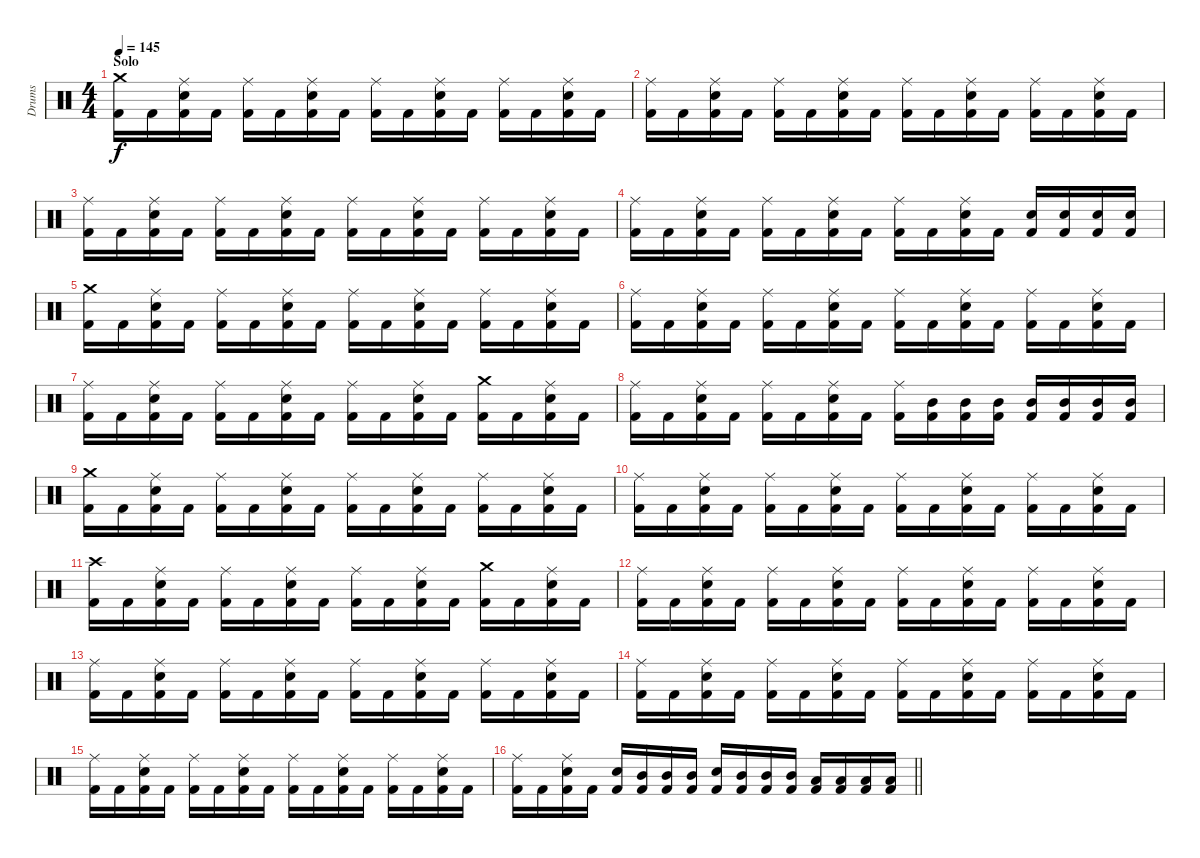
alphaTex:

\track ("Drums" "Drums") {instrument percussion}
\staff {score}
\articulation defaults
\ts (4 4)
\section ("" "Solo")
\tempo 145
\clef neutral
\ks c
("Crash medium (hit)" "Kick (hit) 2").16{dy f} "Kick (hit) 2".16 ("Ride (middle)" "Electric Snare (hit)" "Kick (hit) 2").16 "Kick (hit) 2".16 ("Ride (middle)" "Kick (hit) 2").16 "Kick (hit) 2".16 ("Ride (middle)" "Electric Snare (hit)" "Kick (hit) 2").16 "Kick (hit) 2".16 ("Ride (middle)" "Kick (hit) 2").16 "Kick (hit) 2".16 ("Ride (middle)" "Electric Snare (hit)" "Kick (hit) 2").16 "Kick (hit) 2".16 ("Ride (middle)" "Kick (hit) 2").16 "Kick (hit) 2".16 ("Ride (middle)" "Electric Snare (hit)" "Kick (hit) 2").16 "Kick (hit) 2".16 |
("Ride (middle)" "Kick (hit) 2").16 "Kick (hit) 2".16 ("Ride (middle)" "Electric Snare (hit)" "Kick (hit) 2").16 "Kick (hit) 2".16 ("Ride (middle)" "Kick (hit) 2").16 "Kick (hit) 2".16 ("Ride (middle)" "Electric Snare (hit)" "Kick (hit) 2").16 "Kick (hit) 2".16 ("Ride (middle)" "Kick (hit) 2").16 "Kick (hit) 2".16 ("Ride (middle)" "Electric Snare (hit)" "Kick (hit) 2").16 "Kick (hit) 2".16 ("Ride (middle)" "Kick (hit) 2").16 "Kick (hit) 2".16 ("Ride (middle)" "Electric Snare (hit)" "Kick (hit) 2").16 "Kick (hit) 2".16 |
("Ride (middle)" "Kick (hit) 2").16 "Kick (hit) 2".16 ("Ride (middle)" "Electric Snare (hit)" "Kick (hit) 2").16 "Kick (hit) 2".16 ("Ride (middle)" "Kick (hit) 2").16 "Kick (hit) 2".16 ("Ride (middle)" "Electric Snare (hit)" "Kick (hit) 2").16 "Kick (hit) 2".16 ("Ride (middle)" "Kick (hit) 2").16 "Kick (hit) 2".16 ("Ride (middle)" "Electric Snare (hit)" "Kick (hit) 2").16 "Kick (hit) 2".16 ("Ride (middle)" "Kick (hit) 2").16 "Kick (hit) 2".16 ("Ride (middle)" "Electric Snare (hit)" "Kick (hit) 2").16 "Kick (hit) 2".16 |
("Ride (middle)" "Kick (hit) 2").16 "Kick (hit) 2".16 ("Ride (middle)" "Electric Snare (hit)" "Kick (hit) 2").16 "Kick (hit) 2".16 ("Ride (middle)" "Kick (hit) 2").16 "Kick (hit) 2".16 ("Ride (middle)" "Electric Snare (hit)" "Kick (hit) 2").16 "Kick (hit) 2".16 ("Ride (middle)" "Kick (hit) 2").16 "Kick (hit) 2".16 ("Ride (middle)" "Electric Snare (hit)" "Kick (hit) 2").16 "Kick (hit) 2".16 ("Electric Snare (hit)" "Kick (hit) 2").16 ("Electric Snare (hit)" "Kick (hit) 2").16 ("Electric Snare (hit)" "Kick (hit) 2").16 ("Electric Snare (hit)" "Kick (hit) 2").16 |
("Crash medium (hit)" "Kick (hit) 2").16 "Kick (hit) 2".16 ("Ride (middle)" "Electric Snare (hit)" "Kick (hit) 2").16 "Kick (hit) 2".16 ("Ride (middle)" "Kick (hit) 2").16 "Kick (hit) 2".16 ("Ride (middle)" "Electric Snare (hit)" "Kick (hit) 2").16 "Kick (hit) 2".16 ("Ride (middle)" "Kick (hit) 2").16 "Kick (hit) 2".16 ("Ride (middle)" "Electric Snare (hit)" "Kick (hit) 2").16 "Kick (hit) 2".16 ("Ride (middle)" "Kick (hit) 2").16 "Kick (hit) 2".16 ("Ride (middle)" "Electric Snare (hit)" "Kick (hit) 2").16 "Kick (hit) 2".16 |
("Ride (middle)" "Kick (hit) 2").16 "Kick (hit) 2".16 ("Ride (middle)" "Electric Snare (hit)" "Kick (hit) 2").16 "Kick (hit) 2".16 ("Ride (middle)" "Kick (hit) 2").16 "Kick (hit) 2".16 ("Ride (middle)" "Electric Snare (hit)" "Kick (hit) 2").16 "Kick (hit) 2".16 ("Ride (middle)" "Kick (hit) 2").16 "Kick (hit) 2".16 ("Ride (middle)" "Electric Snare (hit)" "Kick (hit) 2").16 "Kick (hit) 2".16 ("Ride (middle)" "Kick (hit) 2").16 "Kick (hit) 2".16 ("Ride (middle)" "Electric Snare (hit)" "Kick (hit) 2").16 "Kick (hit) 2".16 |
("Ride (middle)" "Kick (hit) 2").16 "Kick (hit) 2".16 ("Ride (middle)" "Electric Snare (hit)" "Kick (hit) 2").16 "Kick (hit) 2".16 ("Ride (middle)" "Kick (hit) 2").16 "Kick (hit) 2".16 ("Ride (middle)" "Electric Snare (hit)" "Kick (hit) 2").16 "Kick (hit) 2".16 ("Ride (middle)" "Kick (hit) 2").16 "Kick (hit) 2".16 ("Ride (middle)" "Electric Snare (hit)" "Kick (hit) 2").16 "Kick (hit) 2".16 ("Crash medium (hit)" "Kick (hit) 2").16 "Kick (hit) 2".16 ("Ride (middle)" "Electric Snare (hit)" "Kick (hit) 2").16 "Kick (hit) 2".16 |
("Ride (middle)" "Kick (hit) 2").16 "Kick (hit) 2".16 ("Ride (middle)" "Electric Snare (hit)" "Kick (hit) 2").16 "Kick (hit) 2".16 ("Ride (middle)" "Kick (hit) 2").16 "Kick (hit) 2".16 ("Ride (middle)" "Electric Snare (hit)" "Kick (hit) 2").16 "Kick (hit) 2".16 ("Ride (middle)" "Kick (hit) 2").16 ("Mid Tom (hit)" "Kick (hit) 2").16 ("Kick (hit) 2" "Mid Tom (hit)").16 ("Kick (hit) 2" "Mid Tom (hit)").16 ("Kick (hit) 2" "Mid Tom (hit)").16 ("Kick (hit) 2" "Mid Tom (hit)").16 ("Kick (hit) 2" "Mid Tom (hit)").16 ("Kick (hit) 2" "Mid Tom (hit)").16 |
("Crash medium (hit)" "Kick (hit) 2").16 "Kick (hit) 2".16 ("Ride (middle)" "Electric Snare (hit)" "Kick (hit) 2").16 "Kick (hit) 2".16 ("Ride (middle)" "Kick (hit) 2").16 "Kick (hit) 2".16 ("Ride (middle)" "Electric Snare (hit)" "Kick (hit) 2").16 "Kick (hit) 2".16 ("Ride (middle)" "Kick (hit) 2").16 "Kick (hit) 2".16 ("Ride (middle)" "Electric Snare (hit)" "Kick (hit) 2").16 "Kick (hit) 2".16 ("Ride (middle)" "Kick (hit) 2").16 "Kick (hit) 2".16 ("Ride (middle)" "Electric Snare (hit)" "Kick (hit) 2").16 "Kick (hit) 2".16 |
("Ride (middle)" "Kick (hit) 2").16 "Kick (hit) 2".16 ("Ride (middle)" "Electric Snare (hit)" "Kick (hit) 2").16 "Kick (hit) 2".16 ("Ride (middle)" "Kick (hit) 2").16 "Kick (hit) 2".16 ("Ride (middle)" "Electric Snare (hit)" "Kick (hit) 2").16 "Kick (hit) 2".16 ("Ride (middle)" "Kick (hit) 2").16 "Kick (hit) 2".16 ("Ride (middle)" "Electric Snare (hit)" "Kick (hit) 2").16 "Kick (hit) 2".16 ("Ride (middle)" "Kick (hit) 2").16 "Kick (hit) 2".16 ("Ride (middle)" "Electric Snare (hit)" "Kick (hit) 2").16 "Kick (hit) 2".16 |
("Crash high (hit)" "Kick (hit) 2").16 "Kick (hit) 2".16 ("Ride (middle)" "Electric Snare (hit)" "Kick (hit) 2").16 "Kick (hit) 2".16 ("Ride (middle)" "Kick (hit) 2").16 "Kick (hit) 2".16 ("Ride (middle)" "Electric Snare (hit)" "Kick (hit) 2").16 "Kick (hit) 2".16 ("Ride (middle)" "Kick (hit) 2").16 "Kick (hit) 2".16 ("Ride (middle)" "Electric Snare (hit)" "Kick (hit) 2").16 "Kick (hit) 2".16 ("Crash medium (hit)" "Kick (hit) 2").16 "Kick (hit) 2".16 ("Ride (middle)" "Electric Snare (hit)" "Kick (hit) 2").16 "Kick (hit) 2".16 |
("Ride (middle)" "Kick (hit) 2").16 "Kick (hit) 2".16 ("Ride (middle)" "Electric Snare (hit)" "Kick (hit) 2").16 "Kick (hit) 2".16 ("Ride (middle)" "Kick (hit) 2").16 "Kick (hit) 2".16 ("Ride (middle)" "Electric Snare (hit)" "Kick (hit) 2").16 "Kick (hit) 2".16 ("Ride (middle)" "Kick (hit) 2").16 "Kick (hit) 2".16 ("Ride (middle)" "Electric Snare (hit)" "Kick (hit) 2").16 "Kick (hit) 2".16 ("Ride (middle)" "Kick (hit) 2").16 "Kick (hit) 2".16 ("Ride (middle)" "Electric Snare (hit)" "Kick (hit) 2").16 "Kick (hit) 2".16 |
("Ride (middle)" "Kick (hit) 2").16 "Kick (hit) 2".16 ("Ride (middle)" "Electric Snare (hit)" "Kick (hit) 2").16 "Kick (hit) 2".16 ("Ride (middle)" "Kick (hit) 2").16 "Kick (hit) 2".16 ("Ride (middle)" "Electric Snare (hit)" "Kick (hit) 2").16 "Kick (hit) 2".16 ("Ride (middle)" "Kick (hit) 2").16 "Kick (hit) 2".16 ("Ride (middle)" "Electric Snare (hit)" "Kick (hit) 2").16 "Kick (hit) 2".16 ("Ride (middle)" "Kick (hit) 2").16 "Kick (hit) 2".16 ("Ride (middle)" "Electric Snare (hit)" "Kick (hit) 2").16 "Kick (hit) 2".16 |
("Ride (middle)" "Kick (hit) 2").16 "Kick (hit) 2".16 ("Ride (middle)" "Electric Snare (hit)" "Kick (hit) 2").16 "Kick (hit) 2".16 ("Ride (middle)" "Kick (hit) 2").16 "Kick (hit) 2".16 ("Ride (middle)" "Electric Snare (hit)" "Kick (hit) 2").16 "Kick (hit) 2".16 ("Ride (middle)" "Kick (hit) 2").16 "Kick (hit) 2".16 ("Ride (middle)" "Electric Snare (hit)" "Kick (hit) 2").16 "Kick (hit) 2".16 ("Ride (middle)" "Kick (hit) 2").16 "Kick (hit) 2".16 ("Ride (middle)" "Electric Snare (hit)" "Kick (hit) 2").16 "Kick (hit) 2".16 |
("Ride (middle)" "Kick (hit) 2").16 "Kick (hit) 2".16 ("Ride (middle)" "Electric Snare (hit)" "Kick (hit) 2").16 "Kick (hit) 2".16 ("Ride (middle)" "Kick (hit) 2").16 "Kick (hit) 2".16 ("Ride (middle)" "Electric Snare (hit)" "Kick (hit) 2").16 "Kick (hit) 2".16 ("Ride (middle)" "Kick (hit) 2").16 "Kick (hit) 2".16 ("Ride (middle)" "Electric Snare (hit)" "Kick (hit) 2").16 "Kick (hit) 2".16 ("Ride (middle)" "Kick (hit) 2").16 "Kick (hit) 2".16 ("Ride (middle)" "Electric Snare (hit)" "Kick (hit) 2").16 "Kick (hit) 2".16 |
\barLineRight lightlight
("Ride (middle)" "Kick (hit) 2").16 "Kick (hit) 2".16 ("Ride (middle)" "Electric Snare (hit)" "Kick (hit) 2").16 "Kick (hit) 2".16 ("Kick (hit) 2" "Electric Snare (hit)").16 ("Kick (hit) 2" "Mid Tom (hit)").16 ("Kick (hit) 2" "Mid Tom (hit)").16 ("Kick (hit) 2" "Mid Tom (hit)").16 ("Kick (hit) 2" "Electric Snare (hit)").16 ("Kick (hit) 2" "Mid Tom (hit)").16 ("Kick (hit) 2" "Mid Tom (hit)").16 ("Kick (hit) 2" "Mid Tom (hit)").16 ("Kick (hit) 2" "Low Tom (hit)").16 ("Kick (hit) 2" "Low Tom (hit)").16 ("Kick (hit) 2" "Low Floor Tom (hit)").16 ("Kick (hit) 2" "Low Floor Tom (hit)").16
